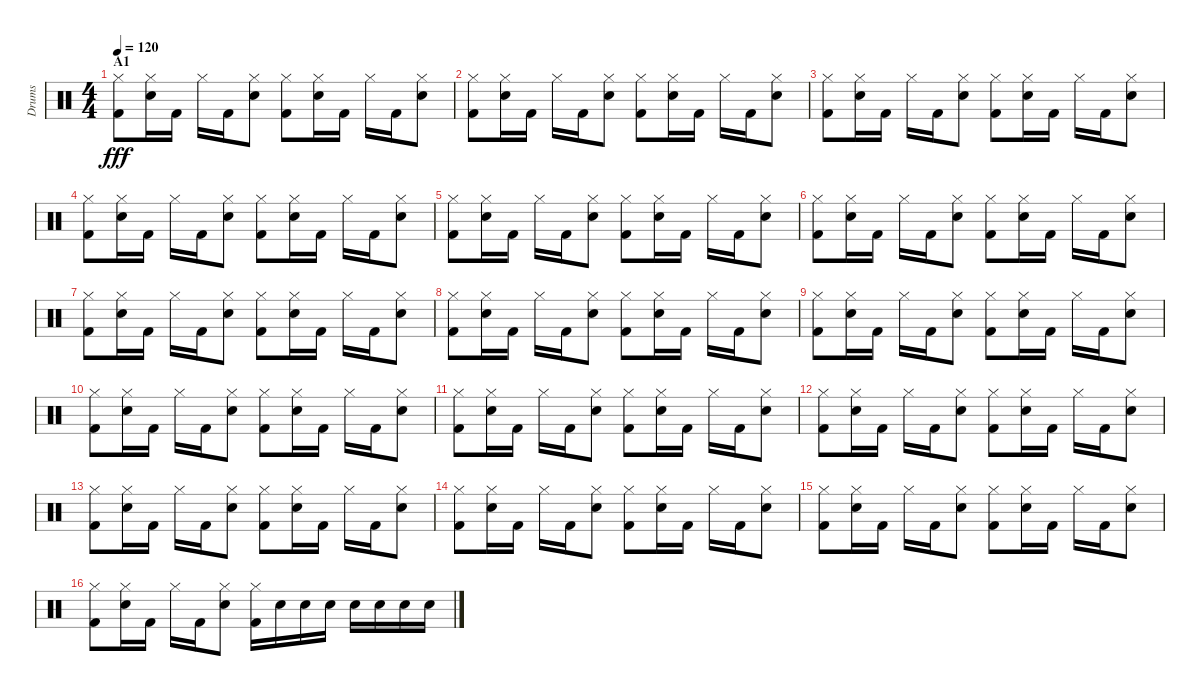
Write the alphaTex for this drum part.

\track ("Drums" "Drums") {instrument percussion}
\staff {score}
\articulation defaults
\ts (4 4)
\section ("" "A1")
\tempo 120
\clef neutral
\ks c
("Hi-Hat (closed)" "Kick (hit) 2").8{dy fff} ("Hi-Hat (closed)" "Snare (hit) 2").16 "Kick (hit) 2".16 "Hi-Hat (closed)".16 "Kick (hit) 2".16 ("Hi-Hat (closed)" "Snare (hit) 2").8 ("Hi-Hat (closed)" "Kick (hit) 2").8 ("Hi-Hat (closed)" "Snare (hit) 2").16 "Kick (hit) 2".16 "Hi-Hat (closed)".16 "Kick (hit) 2".16 ("Hi-Hat (closed)" "Snare (hit) 2").8 |
("Hi-Hat (closed)" "Kick (hit) 2").8 ("Hi-Hat (closed)" "Snare (hit) 2").16 "Kick (hit) 2".16 "Hi-Hat (closed)".16 "Kick (hit) 2".16 ("Hi-Hat (closed)" "Snare (hit) 2").8 ("Hi-Hat (closed)" "Kick (hit) 2").8 ("Hi-Hat (closed)" "Snare (hit) 2").16 "Kick (hit) 2".16 "Hi-Hat (closed)".16 "Kick (hit) 2".16 ("Hi-Hat (closed)" "Snare (hit) 2").8 |
("Hi-Hat (closed)" "Kick (hit) 2").8 ("Hi-Hat (closed)" "Snare (hit) 2").16 "Kick (hit) 2".16 "Hi-Hat (closed)".16 "Kick (hit) 2".16 ("Hi-Hat (closed)" "Snare (hit) 2").8 ("Hi-Hat (closed)" "Kick (hit) 2").8 ("Hi-Hat (closed)" "Snare (hit) 2").16 "Kick (hit) 2".16 "Hi-Hat (closed)".16 "Kick (hit) 2".16 ("Hi-Hat (closed)" "Snare (hit) 2").8 |
("Hi-Hat (closed)" "Kick (hit) 2").8 ("Hi-Hat (closed)" "Snare (hit) 2").16 "Kick (hit) 2".16 "Hi-Hat (closed)".16 "Kick (hit) 2".16 ("Hi-Hat (closed)" "Snare (hit) 2").8 ("Hi-Hat (closed)" "Kick (hit) 2").8 ("Hi-Hat (closed)" "Snare (hit) 2").16 "Kick (hit) 2".16 "Hi-Hat (closed)".16 "Kick (hit) 2".16 ("Hi-Hat (closed)" "Snare (hit) 2").8 |
("Hi-Hat (closed)" "Kick (hit) 2").8 ("Hi-Hat (closed)" "Snare (hit) 2").16 "Kick (hit) 2".16 "Hi-Hat (closed)".16 "Kick (hit) 2".16 ("Hi-Hat (closed)" "Snare (hit) 2").8 ("Hi-Hat (closed)" "Kick (hit) 2").8 ("Hi-Hat (closed)" "Snare (hit) 2").16 "Kick (hit) 2".16 "Hi-Hat (closed)".16 "Kick (hit) 2".16 ("Hi-Hat (closed)" "Snare (hit) 2").8 |
("Hi-Hat (closed)" "Kick (hit) 2").8 ("Hi-Hat (closed)" "Snare (hit) 2").16 "Kick (hit) 2".16 "Hi-Hat (closed)".16 "Kick (hit) 2".16 ("Hi-Hat (closed)" "Snare (hit) 2").8 ("Hi-Hat (closed)" "Kick (hit) 2").8 ("Hi-Hat (closed)" "Snare (hit) 2").16 "Kick (hit) 2".16 "Hi-Hat (closed)".16 "Kick (hit) 2".16 ("Hi-Hat (closed)" "Snare (hit) 2").8 |
("Hi-Hat (closed)" "Kick (hit) 2").8 ("Hi-Hat (closed)" "Snare (hit) 2").16 "Kick (hit) 2".16 "Hi-Hat (closed)".16 "Kick (hit) 2".16 ("Hi-Hat (closed)" "Snare (hit) 2").8 ("Hi-Hat (closed)" "Kick (hit) 2").8 ("Hi-Hat (closed)" "Snare (hit) 2").16 "Kick (hit) 2".16 "Hi-Hat (closed)".16 "Kick (hit) 2".16 ("Hi-Hat (closed)" "Snare (hit) 2").8 |
("Hi-Hat (closed)" "Kick (hit) 2").8 ("Hi-Hat (closed)" "Snare (hit) 2").16 "Kick (hit) 2".16 "Hi-Hat (closed)".16 "Kick (hit) 2".16 ("Hi-Hat (closed)" "Snare (hit) 2").8 ("Hi-Hat (closed)" "Kick (hit) 2").8 ("Hi-Hat (closed)" "Snare (hit) 2").16 "Kick (hit) 2".16 "Hi-Hat (closed)".16 "Kick (hit) 2".16 ("Hi-Hat (closed)" "Snare (hit) 2").8 |
("Hi-Hat (closed)" "Kick (hit) 2").8 ("Hi-Hat (closed)" "Snare (hit) 2").16 "Kick (hit) 2".16 "Hi-Hat (closed)".16 "Kick (hit) 2".16 ("Hi-Hat (closed)" "Snare (hit) 2").8 ("Hi-Hat (closed)" "Kick (hit) 2").8 ("Hi-Hat (closed)" "Snare (hit) 2").16 "Kick (hit) 2".16 "Hi-Hat (closed)".16 "Kick (hit) 2".16 ("Hi-Hat (closed)" "Snare (hit) 2").8 |
("Hi-Hat (closed)" "Kick (hit) 2").8 ("Hi-Hat (closed)" "Snare (hit) 2").16 "Kick (hit) 2".16 "Hi-Hat (closed)".16 "Kick (hit) 2".16 ("Hi-Hat (closed)" "Snare (hit) 2").8 ("Hi-Hat (closed)" "Kick (hit) 2").8 ("Hi-Hat (closed)" "Snare (hit) 2").16 "Kick (hit) 2".16 "Hi-Hat (closed)".16 "Kick (hit) 2".16 ("Hi-Hat (closed)" "Snare (hit) 2").8 |
("Hi-Hat (closed)" "Kick (hit) 2").8 ("Hi-Hat (closed)" "Snare (hit) 2").16 "Kick (hit) 2".16 "Hi-Hat (closed)".16 "Kick (hit) 2".16 ("Hi-Hat (closed)" "Snare (hit) 2").8 ("Hi-Hat (closed)" "Kick (hit) 2").8 ("Hi-Hat (closed)" "Snare (hit) 2").16 "Kick (hit) 2".16 "Hi-Hat (closed)".16 "Kick (hit) 2".16 ("Hi-Hat (closed)" "Snare (hit) 2").8 |
("Hi-Hat (closed)" "Kick (hit) 2").8 ("Hi-Hat (closed)" "Snare (hit) 2").16 "Kick (hit) 2".16 "Hi-Hat (closed)".16 "Kick (hit) 2".16 ("Hi-Hat (closed)" "Snare (hit) 2").8 ("Hi-Hat (closed)" "Kick (hit) 2").8 ("Hi-Hat (closed)" "Snare (hit) 2").16 "Kick (hit) 2".16 "Hi-Hat (closed)".16 "Kick (hit) 2".16 ("Hi-Hat (closed)" "Snare (hit) 2").8 |
("Hi-Hat (closed)" "Kick (hit) 2").8 ("Hi-Hat (closed)" "Snare (hit) 2").16 "Kick (hit) 2".16 "Hi-Hat (closed)".16 "Kick (hit) 2".16 ("Hi-Hat (closed)" "Snare (hit) 2").8 ("Hi-Hat (closed)" "Kick (hit) 2").8 ("Hi-Hat (closed)" "Snare (hit) 2").16 "Kick (hit) 2".16 "Hi-Hat (closed)".16 "Kick (hit) 2".16 ("Hi-Hat (closed)" "Snare (hit) 2").8 |
("Hi-Hat (closed)" "Kick (hit) 2").8 ("Hi-Hat (closed)" "Snare (hit) 2").16 "Kick (hit) 2".16 "Hi-Hat (closed)".16 "Kick (hit) 2".16 ("Hi-Hat (closed)" "Snare (hit) 2").8 ("Hi-Hat (closed)" "Kick (hit) 2").8 ("Hi-Hat (closed)" "Snare (hit) 2").16 "Kick (hit) 2".16 "Hi-Hat (closed)".16 "Kick (hit) 2".16 ("Hi-Hat (closed)" "Snare (hit) 2").8 |
("Hi-Hat (closed)" "Kick (hit) 2").8 ("Hi-Hat (closed)" "Snare (hit) 2").16 "Kick (hit) 2".16 "Hi-Hat (closed)".16 "Kick (hit) 2".16 ("Hi-Hat (closed)" "Snare (hit) 2").8 ("Hi-Hat (closed)" "Kick (hit) 2").8 ("Hi-Hat (closed)" "Snare (hit) 2").16 "Kick (hit) 2".16 "Hi-Hat (closed)".16 "Kick (hit) 2".16 ("Hi-Hat (closed)" "Snare (hit) 2").8 |
("Hi-Hat (closed)" "Kick (hit) 2").8 ("Hi-Hat (closed)" "Snare (hit) 2").16 "Kick (hit) 2".16 "Hi-Hat (closed)".16 "Kick (hit) 2".16 ("Hi-Hat (closed)" "Snare (hit) 2").8 ("Hi-Hat (closed)" "Kick (hit) 2").16 "Snare (hit) 2".16 "Snare (hit) 2".16 "Snare (hit) 2".16 "Snare (hit) 2".16 "Snare (hit) 2".16 "Snare (hit) 2".16 "Snare (hit) 2".16
